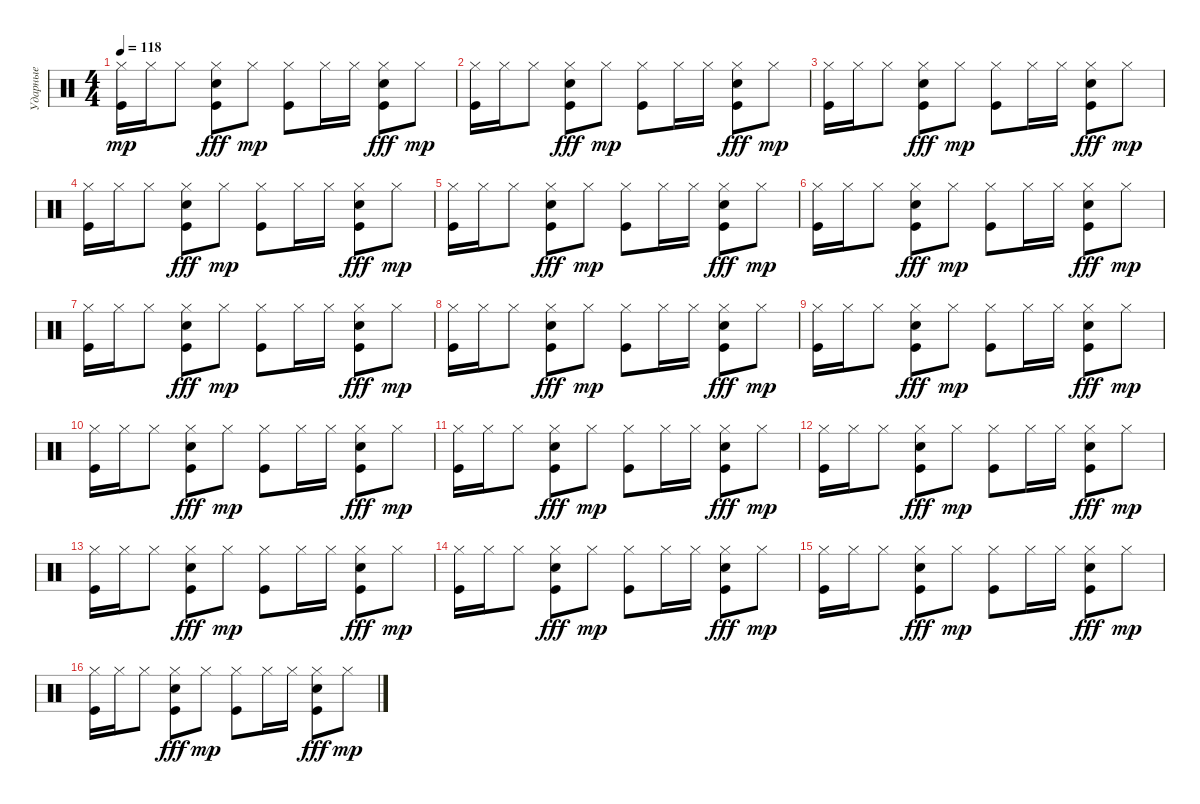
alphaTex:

\track ("Ударные" "Ударные") {instrument percussion}
\staff {score}
\articulation defaults
\ts (4 4)
\tempo 118
\clef neutral
\ks c
("Kick (hit)" "Hi-Hat (closed)").16{dy mp} "Hi-Hat (closed)".16 "Hi-Hat (closed)".8 ("Kick (hit)" "Hi-Hat (closed)" "Electric Snare (hit)").8{dy fff} "Hi-Hat (closed)".8{dy mp} ("Kick (hit)" "Hi-Hat (closed)").8 "Hi-Hat (closed)".16 "Hi-Hat (closed)".16 ("Hi-Hat (closed)" "Kick (hit)" "Electric Snare (hit)").8{dy fff} "Hi-Hat (closed)".8{dy mp} |
("Kick (hit)" "Hi-Hat (closed)").16 "Hi-Hat (closed)".16 "Hi-Hat (closed)".8 ("Kick (hit)" "Hi-Hat (closed)" "Electric Snare (hit)").8{dy fff} "Hi-Hat (closed)".8{dy mp} ("Kick (hit)" "Hi-Hat (closed)").8 "Hi-Hat (closed)".16 "Hi-Hat (closed)".16 ("Hi-Hat (closed)" "Kick (hit)" "Electric Snare (hit)").8{dy fff} "Hi-Hat (closed)".8{dy mp} |
("Kick (hit)" "Hi-Hat (closed)").16 "Hi-Hat (closed)".16 "Hi-Hat (closed)".8 ("Kick (hit)" "Hi-Hat (closed)" "Electric Snare (hit)").8{dy fff} "Hi-Hat (closed)".8{dy mp} ("Kick (hit)" "Hi-Hat (closed)").8 "Hi-Hat (closed)".16 "Hi-Hat (closed)".16 ("Hi-Hat (closed)" "Kick (hit)" "Electric Snare (hit)").8{dy fff} "Hi-Hat (closed)".8{dy mp} |
("Kick (hit)" "Hi-Hat (closed)").16 "Hi-Hat (closed)".16 "Hi-Hat (closed)".8 ("Kick (hit)" "Hi-Hat (closed)" "Electric Snare (hit)").8{dy fff} "Hi-Hat (closed)".8{dy mp} ("Kick (hit)" "Hi-Hat (closed)").8 "Hi-Hat (closed)".16 "Hi-Hat (closed)".16 ("Hi-Hat (closed)" "Kick (hit)" "Electric Snare (hit)").8{dy fff} "Hi-Hat (closed)".8{dy mp} |
("Kick (hit)" "Hi-Hat (closed)").16 "Hi-Hat (closed)".16 "Hi-Hat (closed)".8 ("Kick (hit)" "Hi-Hat (closed)" "Electric Snare (hit)").8{dy fff} "Hi-Hat (closed)".8{dy mp} ("Kick (hit)" "Hi-Hat (closed)").8 "Hi-Hat (closed)".16 "Hi-Hat (closed)".16 ("Hi-Hat (closed)" "Kick (hit)" "Electric Snare (hit)").8{dy fff} "Hi-Hat (closed)".8{dy mp} |
("Kick (hit)" "Hi-Hat (closed)").16 "Hi-Hat (closed)".16 "Hi-Hat (closed)".8 ("Kick (hit)" "Hi-Hat (closed)" "Electric Snare (hit)").8{dy fff} "Hi-Hat (closed)".8{dy mp} ("Kick (hit)" "Hi-Hat (closed)").8 "Hi-Hat (closed)".16 "Hi-Hat (closed)".16 ("Hi-Hat (closed)" "Kick (hit)" "Electric Snare (hit)").8{dy fff} "Hi-Hat (closed)".8{dy mp} |
("Kick (hit)" "Hi-Hat (closed)").16 "Hi-Hat (closed)".16 "Hi-Hat (closed)".8 ("Kick (hit)" "Hi-Hat (closed)" "Electric Snare (hit)").8{dy fff} "Hi-Hat (closed)".8{dy mp} ("Kick (hit)" "Hi-Hat (closed)").8 "Hi-Hat (closed)".16 "Hi-Hat (closed)".16 ("Hi-Hat (closed)" "Kick (hit)" "Electric Snare (hit)").8{dy fff} "Hi-Hat (closed)".8{dy mp} |
("Kick (hit)" "Hi-Hat (closed)").16 "Hi-Hat (closed)".16 "Hi-Hat (closed)".8 ("Kick (hit)" "Hi-Hat (closed)" "Electric Snare (hit)").8{dy fff} "Hi-Hat (closed)".8{dy mp} ("Kick (hit)" "Hi-Hat (closed)").8 "Hi-Hat (closed)".16 "Hi-Hat (closed)".16 ("Hi-Hat (closed)" "Kick (hit)" "Electric Snare (hit)").8{dy fff} "Hi-Hat (closed)".8{dy mp} |
("Kick (hit)" "Hi-Hat (closed)").16 "Hi-Hat (closed)".16 "Hi-Hat (closed)".8 ("Kick (hit)" "Hi-Hat (closed)" "Electric Snare (hit)").8{dy fff} "Hi-Hat (closed)".8{dy mp} ("Kick (hit)" "Hi-Hat (closed)").8 "Hi-Hat (closed)".16 "Hi-Hat (closed)".16 ("Hi-Hat (closed)" "Kick (hit)" "Electric Snare (hit)").8{dy fff} "Hi-Hat (closed)".8{dy mp} |
("Kick (hit)" "Hi-Hat (closed)").16 "Hi-Hat (closed)".16 "Hi-Hat (closed)".8 ("Kick (hit)" "Hi-Hat (closed)" "Electric Snare (hit)").8{dy fff} "Hi-Hat (closed)".8{dy mp} ("Kick (hit)" "Hi-Hat (closed)").8 "Hi-Hat (closed)".16 "Hi-Hat (closed)".16 ("Hi-Hat (closed)" "Kick (hit)" "Electric Snare (hit)").8{dy fff} "Hi-Hat (closed)".8{dy mp} |
("Kick (hit)" "Hi-Hat (closed)").16 "Hi-Hat (closed)".16 "Hi-Hat (closed)".8 ("Kick (hit)" "Hi-Hat (closed)" "Electric Snare (hit)").8{dy fff} "Hi-Hat (closed)".8{dy mp} ("Kick (hit)" "Hi-Hat (closed)").8 "Hi-Hat (closed)".16 "Hi-Hat (closed)".16 ("Hi-Hat (closed)" "Kick (hit)" "Electric Snare (hit)").8{dy fff} "Hi-Hat (closed)".8{dy mp} |
("Kick (hit)" "Hi-Hat (closed)").16 "Hi-Hat (closed)".16 "Hi-Hat (closed)".8 ("Kick (hit)" "Hi-Hat (closed)" "Electric Snare (hit)").8{dy fff} "Hi-Hat (closed)".8{dy mp} ("Kick (hit)" "Hi-Hat (closed)").8 "Hi-Hat (closed)".16 "Hi-Hat (closed)".16 ("Hi-Hat (closed)" "Kick (hit)" "Electric Snare (hit)").8{dy fff} "Hi-Hat (closed)".8{dy mp} |
("Kick (hit)" "Hi-Hat (closed)").16 "Hi-Hat (closed)".16 "Hi-Hat (closed)".8 ("Kick (hit)" "Hi-Hat (closed)" "Electric Snare (hit)").8{dy fff} "Hi-Hat (closed)".8{dy mp} ("Kick (hit)" "Hi-Hat (closed)").8 "Hi-Hat (closed)".16 "Hi-Hat (closed)".16 ("Hi-Hat (closed)" "Kick (hit)" "Electric Snare (hit)").8{dy fff} "Hi-Hat (closed)".8{dy mp} |
("Kick (hit)" "Hi-Hat (closed)").16 "Hi-Hat (closed)".16 "Hi-Hat (closed)".8 ("Kick (hit)" "Hi-Hat (closed)" "Electric Snare (hit)").8{dy fff} "Hi-Hat (closed)".8{dy mp} ("Kick (hit)" "Hi-Hat (closed)").8 "Hi-Hat (closed)".16 "Hi-Hat (closed)".16 ("Hi-Hat (closed)" "Kick (hit)" "Electric Snare (hit)").8{dy fff} "Hi-Hat (closed)".8{dy mp} |
("Kick (hit)" "Hi-Hat (closed)").16 "Hi-Hat (closed)".16 "Hi-Hat (closed)".8 ("Kick (hit)" "Hi-Hat (closed)" "Electric Snare (hit)").8{dy fff} "Hi-Hat (closed)".8{dy mp} ("Kick (hit)" "Hi-Hat (closed)").8 "Hi-Hat (closed)".16 "Hi-Hat (closed)".16 ("Hi-Hat (closed)" "Kick (hit)" "Electric Snare (hit)").8{dy fff} "Hi-Hat (closed)".8{dy mp} |
("Kick (hit)" "Hi-Hat (closed)").16 "Hi-Hat (closed)".16 "Hi-Hat (closed)".8 ("Kick (hit)" "Hi-Hat (closed)" "Electric Snare (hit)").8{dy fff} "Hi-Hat (closed)".8{dy mp} ("Kick (hit)" "Hi-Hat (closed)").8 "Hi-Hat (closed)".16 "Hi-Hat (closed)".16 ("Hi-Hat (closed)" "Kick (hit)" "Electric Snare (hit)").8{dy fff} "Hi-Hat (closed)".8{dy mp}
